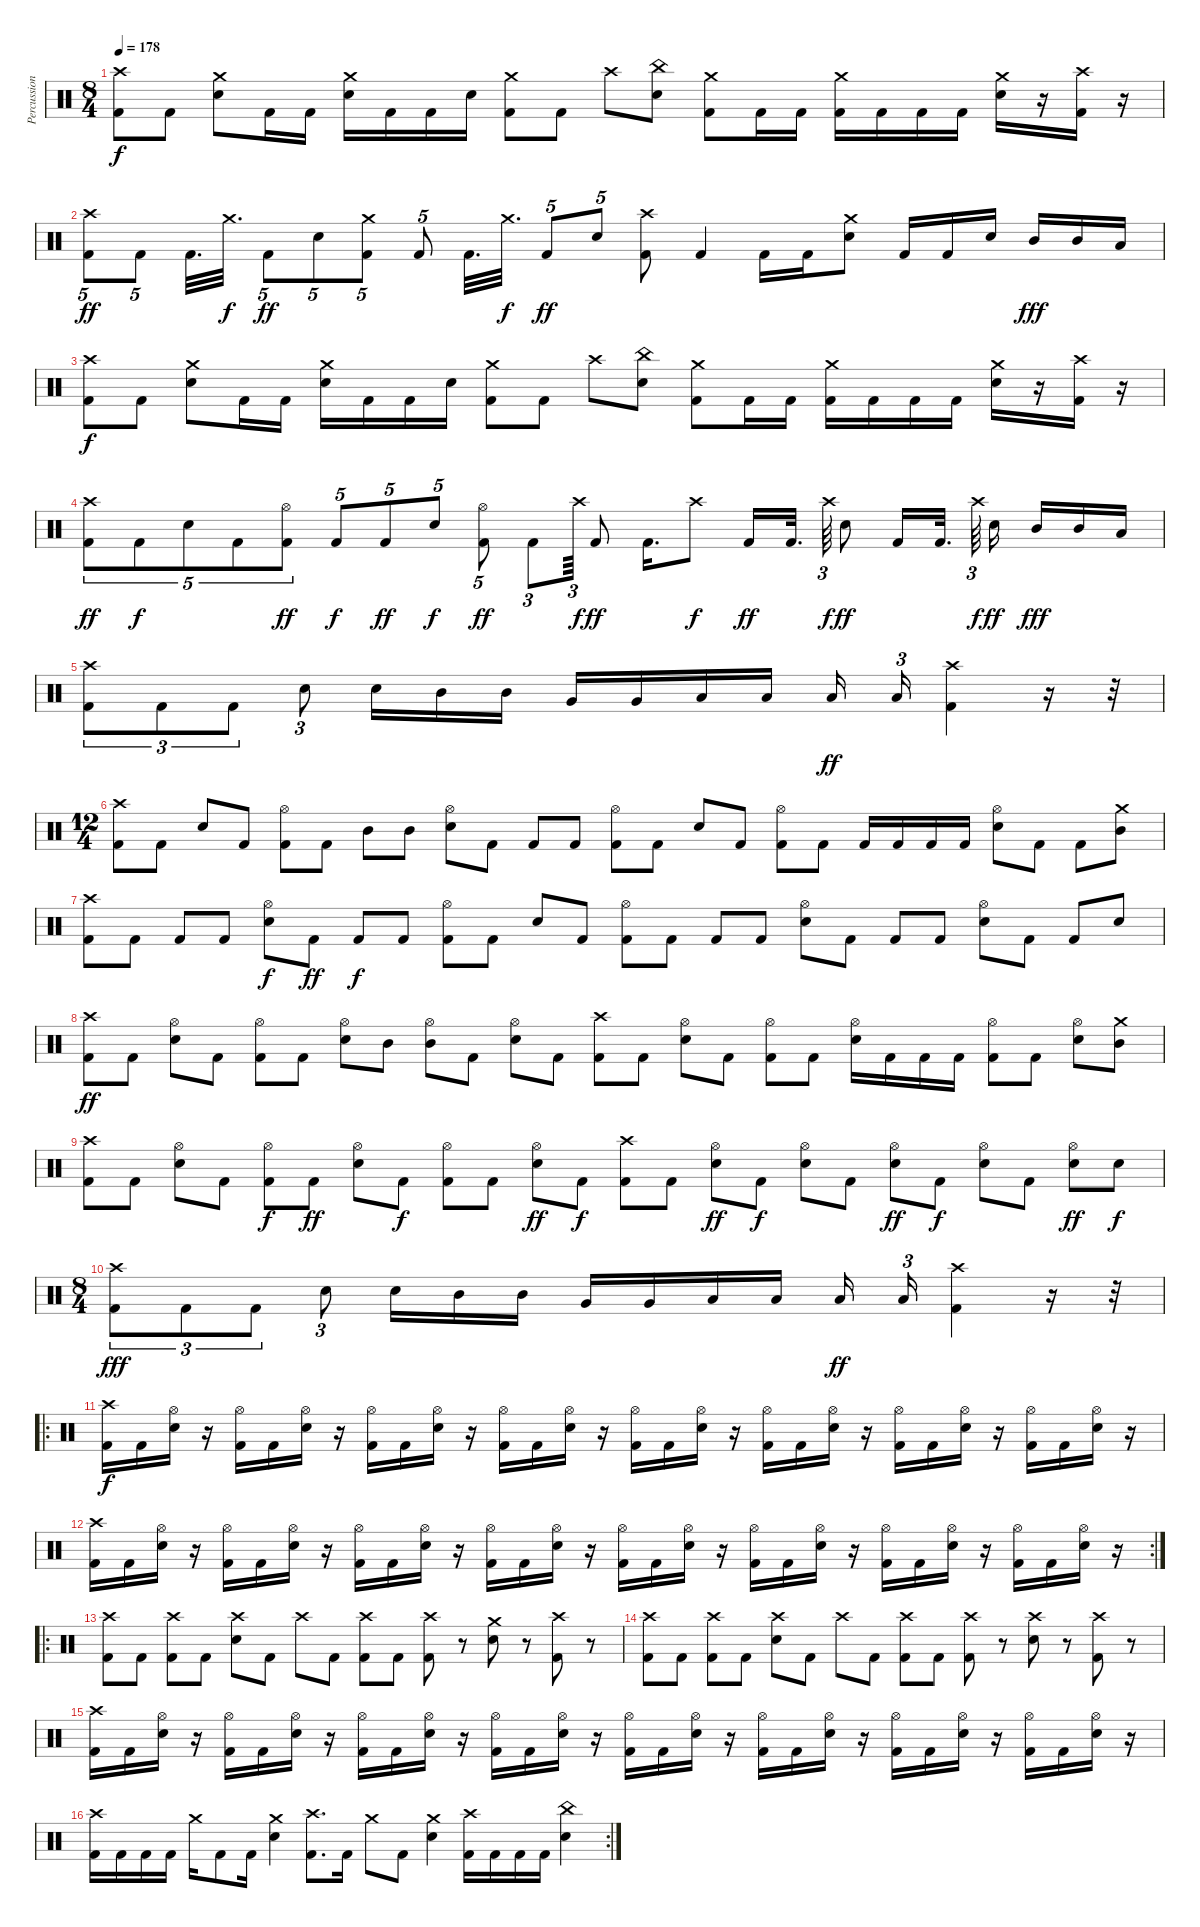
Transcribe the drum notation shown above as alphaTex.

\track ("Percussion" "Percussion") {instrument percussion}
\staff {score}
\articulation defaults
\ts (8 4)
\tempo 178
\clef neutral
\ks c
("Crash high (hit)" "Kick (hit) 2").8{dy f} "Kick (hit) 2".8 ("Crash medium (hit)" "Electric Snare (hit)").8 "Kick (hit) 2".16 "Kick (hit) 2".16 ("Crash medium (hit)" "Electric Snare (hit)").16 "Kick (hit) 2".16 "Kick (hit) 2".16 "Electric Snare (hit)".16 ("Crash medium (hit)" "Kick (hit) 2").8 "Kick (hit) 2".8 "Crash high (hit)".8 ("China (hit)" "Electric Snare (hit)").8 ("Crash medium (hit)" "Kick (hit) 2").8 "Kick (hit) 2".16 "Kick (hit) 2".16 ("Crash medium (hit)" "Kick (hit) 2").16 "Kick (hit) 2".16 "Kick (hit) 2".16 "Kick (hit) 2".16 ("Crash medium (hit)" "Electric Snare (hit)").16 r.16 ("Crash high (hit)" "Kick (hit) 2").16 r.16 |
("Crash high (hit)" "Kick (hit) 2").8{tu (5 4) dy ff} "Kick (hit) 2".8{tu (5 4)} "Kick (hit) 2".32{d} "Crash medium (hit)".32{d dy f} "Kick (hit) 2".8{tu (5 4) dy ff} "Electric Snare (hit)".8{tu (5 4)} ("Crash medium (hit)" "Kick (hit) 2").8{tu (5 4)} "Kick (hit) 2".8{tu (5 4)} "Kick (hit) 2".32{d} "Crash medium (hit)".32{d dy f} "Kick (hit) 2".8{tu (5 4) dy ff} "Electric Snare (hit)".8{tu (5 4)} ("Crash high (hit)" "Kick (hit) 2").8 "Kick (hit) 2".4 "Kick (hit) 2".16 "Kick (hit) 2".16 ("Crash medium (hit)" "Electric Snare (hit)").8 "Kick (hit) 2".16 "Kick (hit) 2".16 "Electric Snare (hit)".16 "Mid Tom (hit)".16{dy fff} "Mid Tom (hit)".16 "Low Floor Tom (hit)".16 |
("Crash high (hit)" "Kick (hit) 2").8{dy f} "Kick (hit) 2".8 ("Crash medium (hit)" "Electric Snare (hit)").8 "Kick (hit) 2".16 "Kick (hit) 2".16 ("Crash medium (hit)" "Electric Snare (hit)").16 "Kick (hit) 2".16 "Kick (hit) 2".16 "Electric Snare (hit)".16 ("Crash medium (hit)" "Kick (hit) 2").8 "Kick (hit) 2".8 "Crash high (hit)".8 ("China (hit)" "Electric Snare (hit)").8 ("Crash medium (hit)" "Kick (hit) 2").8 "Kick (hit) 2".16 "Kick (hit) 2".16 ("Crash medium (hit)" "Kick (hit) 2").16 "Kick (hit) 2".16 "Kick (hit) 2".16 "Kick (hit) 2".16 ("Crash medium (hit)" "Electric Snare (hit)").16 r.16 ("Crash high (hit)" "Kick (hit) 2").16 r.16 |
("Crash high (hit)" "Kick (hit) 2").8{tu (5 4) dy ff} "Kick (hit) 2".8{tu (5 4) dy f} "Electric Snare (hit)".8{tu (5 4)} "Kick (hit) 2".8{tu (5 4)} ("Hi-Hat (open)" "Kick (hit) 2").8{tu (5 4) dy ff} "Kick (hit) 2".8{tu (5 4) dy f} "Kick (hit) 2".8{tu (5 4) dy ff} "Electric Snare (hit)".8{tu (5 4) dy f} ("Hi-Hat (open)" "Kick (hit) 2").8{tu (5 4) dy ff} "Kick (hit) 2".8{tu (3 2)} "Crash high (hit)".64{tu (3 2) dy f} "Kick (hit) 2".8{dy ff} "Kick (hit) 2".16{d} "Crash high (hit)".8{dy f} "Kick (hit) 2".16{dy ff} "Kick (hit) 2".32{d} "Crash high (hit)".64{tu (3 2) dy f} "Electric Snare (hit)".8{dy ff} "Kick (hit) 2".16 "Kick (hit) 2".32{d} "Crash high (hit)".64{tu (3 2) dy f} "Electric Snare (hit)".16{dy ff} "Mid Tom (hit)".16{dy fff} "Mid Tom (hit)".16 "Low Floor Tom (hit)".16 |
("Crash high (hit)" "Kick (hit) 2").8{tu (3 2)} "Kick (hit) 2".8{tu (3 2)} "Kick (hit) 2".8{tu (3 2)} "Electric Snare (hit)".8{tu (3 2)} "Electric Snare (hit)".16 "Mid Tom (hit)".16 "Mid Tom (hit)".16 "Very Low Tom (hit)".16 "Very Low Tom (hit)".16 "Low Floor Tom (hit)".16 "Low Floor Tom (hit)".16 "Low Floor Tom (hit)".16{dy ff} "Low Floor Tom (hit)".16{tu (3 2)} ("Crash high (hit)" "Kick (hit) 2").4 r.16 r.32 |
\ts (12 4)
("Crash high (hit)" "Kick (hit) 2").8 "Kick (hit) 2".8 "Electric Snare (hit)".8 "Kick (hit) 2".8 ("Hi-Hat (open)" "Kick (hit) 2").8 "Kick (hit) 2".8 "Mid Tom (hit)".8 "Mid Tom (hit)".8 ("Hi-Hat (open)" "Electric Snare (hit)").8 "Kick (hit) 2".8 "Kick (hit) 2".8 "Kick (hit) 2".8 ("Hi-Hat (open)" "Kick (hit) 2").8 "Kick (hit) 2".8 "Electric Snare (hit)".8 "Kick (hit) 2".8 ("Hi-Hat (open)" "Kick (hit) 2").8 "Kick (hit) 2".8 "Kick (hit) 2".16 "Kick (hit) 2".16 "Kick (hit) 2".16 "Kick (hit) 2".16 ("Hi-Hat (open)" "Electric Snare (hit)").8 "Kick (hit) 2".8 "Kick (hit) 2".8 ("Crash medium (hit)" "Mid Tom (hit)").8 |
("Crash high (hit)" "Kick (hit) 2").8 "Kick (hit) 2".8 "Kick (hit) 2".8 "Kick (hit) 2".8 ("Hi-Hat (open)" "Electric Snare (hit)").8{dy f} "Kick (hit) 2".8{dy ff} "Kick (hit) 2".8{dy f} "Kick (hit) 2".8 ("Hi-Hat (open)" "Kick (hit) 2").8 "Kick (hit) 2".8 "Electric Snare (hit)".8 "Kick (hit) 2".8 ("Hi-Hat (open)" "Kick (hit) 2").8 "Kick (hit) 2".8 "Kick (hit) 2".8 "Kick (hit) 2".8 ("Hi-Hat (open)" "Electric Snare (hit)").8 "Kick (hit) 2".8 "Kick (hit) 2".8 "Kick (hit) 2".8 ("Hi-Hat (open)" "Electric Snare (hit)").8 "Kick (hit) 2".8 "Kick (hit) 2".8 "Electric Snare (hit)".8 |
("Crash high (hit)" "Kick (hit) 2").8{dy ff} "Kick (hit) 2".8 ("Hi-Hat (open)" "Electric Snare (hit)").8 "Kick (hit) 2".8 ("Hi-Hat (open)" "Kick (hit) 2").8 "Kick (hit) 2".8 ("Hi-Hat (open)" "Electric Snare (hit)").8 "Mid Tom (hit)".8 ("Hi-Hat (open)" "Mid Tom (hit)").8 "Kick (hit) 2".8 ("Hi-Hat (open)" "Electric Snare (hit)").8 "Kick (hit) 2".8 ("Crash high (hit)" "Kick (hit) 2").8 "Kick (hit) 2".8 ("Hi-Hat (open)" "Electric Snare (hit)").8 "Kick (hit) 2".8 ("Hi-Hat (open)" "Kick (hit) 2").8 "Kick (hit) 2".8 ("Hi-Hat (open)" "Electric Snare (hit)").16 "Kick (hit) 2".16 "Kick (hit) 2".16 "Kick (hit) 2".16 ("Hi-Hat (open)" "Kick (hit) 2").8 "Kick (hit) 2".8 ("Hi-Hat (open)" "Electric Snare (hit)").8 ("Crash medium (hit)" "Mid Tom (hit)").8 |
("Crash high (hit)" "Kick (hit) 2").8 "Kick (hit) 2".8 ("Hi-Hat (open)" "Electric Snare (hit)").8 "Kick (hit) 2".8 ("Hi-Hat (open)" "Kick (hit) 2").8{dy f} "Kick (hit) 2".8{dy ff} ("Hi-Hat (open)" "Electric Snare (hit)").8 "Kick (hit) 2".8{dy f} ("Hi-Hat (open)" "Kick (hit) 2").8 "Kick (hit) 2".8 ("Hi-Hat (open)" "Electric Snare (hit)").8{dy ff} "Kick (hit) 2".8{dy f} ("Crash high (hit)" "Kick (hit) 2").8 "Kick (hit) 2".8 ("Hi-Hat (open)" "Electric Snare (hit)").8{dy ff} "Kick (hit) 2".8{dy f} ("Hi-Hat (open)" "Electric Snare (hit)").8 "Kick (hit) 2".8 ("Hi-Hat (open)" "Electric Snare (hit)").8{dy ff} "Kick (hit) 2".8{dy f} ("Hi-Hat (open)" "Electric Snare (hit)").8 "Kick (hit) 2".8 ("Hi-Hat (open)" "Electric Snare (hit)").8{dy ff} "Electric Snare (hit)".8{dy f} |
\ts (8 4)
("Crash high (hit)" "Kick (hit) 2").8{tu (3 2) dy fff} "Kick (hit) 2".8{tu (3 2)} "Kick (hit) 2".8{tu (3 2)} "Electric Snare (hit)".8{tu (3 2)} "Electric Snare (hit)".16 "Mid Tom (hit)".16 "Mid Tom (hit)".16 "Very Low Tom (hit)".16 "Very Low Tom (hit)".16 "Low Floor Tom (hit)".16 "Low Floor Tom (hit)".16 "Low Floor Tom (hit)".16{dy ff} "Low Floor Tom (hit)".16{tu (3 2)} ("Crash high (hit)" "Kick (hit) 2").4 r.16 r.32 |
\ro
("Crash high (hit)" "Kick (hit) 2").16{dy f} "Kick (hit) 2".16 ("Hi-Hat (open)" "Electric Snare (hit)").16 r.16 ("Hi-Hat (open)" "Kick (hit) 2").16 "Kick (hit) 2".16 ("Hi-Hat (open)" "Electric Snare (hit)").16 r.16 ("Hi-Hat (open)" "Kick (hit) 2").16 "Kick (hit) 2".16 ("Hi-Hat (open)" "Electric Snare (hit)").16 r.16 ("Hi-Hat (open)" "Kick (hit) 2").16 "Kick (hit) 2".16 ("Hi-Hat (open)" "Electric Snare (hit)").16 r.16 ("Hi-Hat (open)" "Kick (hit) 2").16 "Kick (hit) 2".16 ("Hi-Hat (open)" "Electric Snare (hit)").16 r.16 ("Hi-Hat (open)" "Kick (hit) 2").16 "Kick (hit) 2".16 ("Hi-Hat (open)" "Electric Snare (hit)").16 r.16 ("Hi-Hat (open)" "Kick (hit) 2").16 "Kick (hit) 2".16 ("Hi-Hat (open)" "Electric Snare (hit)").16 r.16 ("Hi-Hat (open)" "Kick (hit) 2").16 "Kick (hit) 2".16 ("Hi-Hat (open)" "Electric Snare (hit)").16 r.16 |
\rc 2
("Crash high (hit)" "Kick (hit) 2").16 "Kick (hit) 2".16 ("Hi-Hat (open)" "Electric Snare (hit)").16 r.16 ("Hi-Hat (open)" "Kick (hit) 2").16 "Kick (hit) 2".16 ("Hi-Hat (open)" "Electric Snare (hit)").16 r.16 ("Hi-Hat (open)" "Kick (hit) 2").16 "Kick (hit) 2".16 ("Hi-Hat (open)" "Electric Snare (hit)").16 r.16 ("Hi-Hat (open)" "Kick (hit) 2").16 "Kick (hit) 2".16 ("Hi-Hat (open)" "Electric Snare (hit)").16 r.16 ("Hi-Hat (open)" "Kick (hit) 2").16 "Kick (hit) 2".16 ("Hi-Hat (open)" "Electric Snare (hit)").16 r.16 ("Hi-Hat (open)" "Kick (hit) 2").16 "Kick (hit) 2".16 ("Hi-Hat (open)" "Electric Snare (hit)").16 r.16 ("Hi-Hat (open)" "Kick (hit) 2").16 "Kick (hit) 2".16 ("Hi-Hat (open)" "Electric Snare (hit)").16 r.16 ("Hi-Hat (open)" "Kick (hit) 2").16 "Kick (hit) 2".16 ("Hi-Hat (open)" "Electric Snare (hit)").16 r.16 |
\ro
("Crash high (hit)" "Kick (hit) 2").8 "Kick (hit) 2".8 ("Crash high (hit)" "Kick (hit) 2").8 "Kick (hit) 2".8 ("Crash high (hit)" "Electric Snare (hit)").8 "Kick (hit) 2".8 "Crash high (hit)".8 "Kick (hit) 2".8 ("Crash high (hit)" "Kick (hit) 2").8 "Kick (hit) 2".8 ("Crash high (hit)" "Kick (hit) 2").8 r.8 ("Crash medium (hit)" "Electric Snare (hit)").8 r.8 ("Crash high (hit)" "Kick (hit) 2").8 r.8 |
("Crash high (hit)" "Kick (hit) 2").8 "Kick (hit) 2".8 ("Crash high (hit)" "Kick (hit) 2").8 "Kick (hit) 2".8 ("Crash high (hit)" "Electric Snare (hit)").8 "Kick (hit) 2".8 "Crash high (hit)".8 "Kick (hit) 2".8 ("Crash high (hit)" "Kick (hit) 2").8 "Kick (hit) 2".8 ("Crash high (hit)" "Kick (hit) 2").8 r.8 ("Crash high (hit)" "Electric Snare (hit)").8 r.8 ("Crash high (hit)" "Kick (hit) 2").8 r.8 |
("Crash high (hit)" "Kick (hit) 2").16 "Kick (hit) 2".16 ("Hi-Hat (open)" "Electric Snare (hit)").16 r.16 ("Hi-Hat (open)" "Kick (hit) 2").16 "Kick (hit) 2".16 ("Hi-Hat (open)" "Electric Snare (hit)").16 r.16 ("Hi-Hat (open)" "Kick (hit) 2").16 "Kick (hit) 2".16 ("Hi-Hat (open)" "Electric Snare (hit)").16 r.16 ("Hi-Hat (open)" "Kick (hit) 2").16 "Kick (hit) 2".16 ("Hi-Hat (open)" "Electric Snare (hit)").16 r.16 ("Hi-Hat (open)" "Kick (hit) 2").16 "Kick (hit) 2".16 ("Hi-Hat (open)" "Electric Snare (hit)").16 r.16 ("Hi-Hat (open)" "Kick (hit) 2").16 "Kick (hit) 2".16 ("Hi-Hat (open)" "Electric Snare (hit)").16 r.16 ("Hi-Hat (open)" "Kick (hit) 2").16 "Kick (hit) 2".16 ("Hi-Hat (open)" "Electric Snare (hit)").16 r.16 ("Hi-Hat (open)" "Kick (hit) 2").16 "Kick (hit) 2".16 ("Hi-Hat (open)" "Electric Snare (hit)").16 r.16 |
\rc 2
("Crash high (hit)" "Kick (hit) 2").16 "Kick (hit) 2".16 "Kick (hit) 2".16 "Kick (hit) 2".16 "Crash medium (hit)".16 "Kick (hit) 2".8 "Kick (hit) 2".16 ("Crash medium (hit)" "Electric Snare (hit)").4 ("Crash high (hit)" "Kick (hit) 2").8{d} "Kick (hit) 2".16 "Crash medium (hit)".8 "Kick (hit) 2".8 ("Crash medium (hit)" "Electric Snare (hit)").4 ("Crash high (hit)" "Kick (hit) 2").16 "Kick (hit) 2".16 "Kick (hit) 2".16 "Kick (hit) 2".16 ("China (hit)" "Electric Snare (hit)").4
